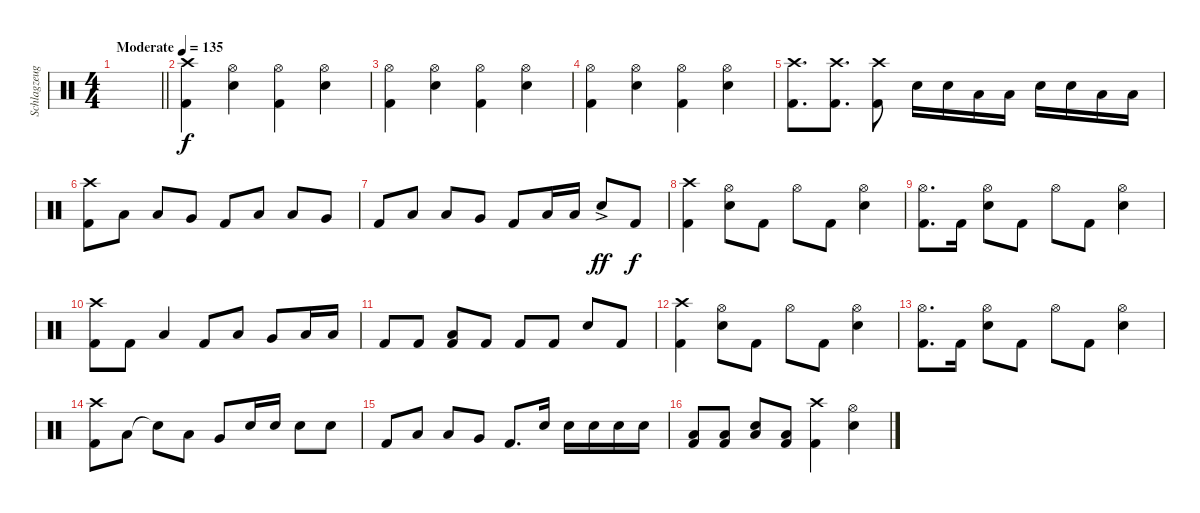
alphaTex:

\track ("Schlagzeug" "Schlagzeug") {instrument percussion}
\staff {score}
\articulation defaults
\ts (4 4)
\tempo (135 "Moderate")
\clef neutral
\barLineRight lightlight
\ks c
|
("Crash high (hit)" "Kick (hit) 2").4 ("Hi-Hat (open)" "Electric Snare (hit)").4 ("Hi-Hat (open)" "Kick (hit) 2").4 ("Hi-Hat (open)" "Electric Snare (hit)").4 |
("Hi-Hat (open)" "Kick (hit) 2").4 ("Hi-Hat (open)" "Electric Snare (hit)").4 ("Hi-Hat (open)" "Kick (hit) 2").4 ("Hi-Hat (open)" "Electric Snare (hit)").4 |
("Hi-Hat (open)" "Kick (hit) 2").4 ("Hi-Hat (open)" "Electric Snare (hit)").4 ("Hi-Hat (open)" "Kick (hit) 2").4 ("Hi-Hat (open)" "Electric Snare (hit)").4 |
("Crash high (hit)" "Kick (hit) 2").8{d} ("Crash high (hit)" "Kick (hit) 2").8{d} ("Crash high (hit)" "Kick (hit) 2").8 "Electric Snare (hit)".16 "Electric Snare (hit)".16 "Low Tom (hit)".16 "Low Tom (hit)".16 "Electric Snare (hit)".16 "Electric Snare (hit)".16 "Low Tom (hit)".16 "Low Tom (hit)".16 |
("Crash high (hit)" "Kick (hit) 2").8 "Low Floor Tom (hit)".8 "Low Tom (hit)".8 "Very Low Tom (hit)".8 "Kick (hit) 2".8 "Low Floor Tom (hit)".8 "Low Tom (hit)".8 "Very Low Tom (hit)".8 |
"Kick (hit) 2".8 "Low Floor Tom (hit)".8 "Low Tom (hit)".8 "Very Low Tom (hit)".8 "Kick (hit) 2".8 "Low Floor Tom (hit)".16 "Low Floor Tom (hit)".16 "Electric Snare (hit)"{ac}.8{dy ff} "Kick (hit) 2".8{dy f} |
("Crash high (hit)" "Kick (hit) 2").4 ("Hi-Hat (open)" "Electric Snare (hit)").8 "Kick (hit) 2".8 "Hi-Hat (open)".8 "Kick (hit) 2".8 ("Hi-Hat (open)" "Electric Snare (hit)").4 |
("Hi-Hat (open)" "Kick (hit) 2").8{d} "Kick (hit) 2".16 ("Hi-Hat (open)" "Electric Snare (hit)").8 "Kick (hit) 2".8 "Hi-Hat (open)".8 "Kick (hit) 2".8 ("Hi-Hat (open)" "Electric Snare (hit)").4 |
("Crash high (hit)" "Kick (hit) 2").8 "Kick (hit) 2".8 "Low Tom (hit)".4 "Kick (hit) 2".8 "Low Floor Tom (hit)".8 "Very Low Tom (hit)".8 "Low Floor Tom (hit)".16 "Low Floor Tom (hit)".16 |
"Kick (hit) 2".8 "Kick (hit) 2".8 ("Low Floor Tom (hit)" "Kick (hit) 2").8 "Kick (hit) 2".8 "Kick (hit) 2".8 "Kick (hit) 2".8 "Electric Snare (hit)".8 "Kick (hit) 2".8 |
("Crash high (hit)" "Kick (hit) 2").4 ("Hi-Hat (open)" "Electric Snare (hit)").8 "Kick (hit) 2".8 "Hi-Hat (open)".8 "Kick (hit) 2".8 ("Hi-Hat (open)" "Electric Snare (hit)").4 |
("Hi-Hat (open)" "Kick (hit) 2").8{d} "Kick (hit) 2".16 ("Hi-Hat (open)" "Electric Snare (hit)").8 "Kick (hit) 2".8 "Hi-Hat (open)".8 "Kick (hit) 2".8 ("Hi-Hat (open)" "Electric Snare (hit)").4 |
("Crash high (hit)" "Kick (hit) 2").8 "Low Floor Tom (hit)".8 "Snare (hit)"{t}.8 "Low Tom (hit)".8 "Very Low Tom (hit)".8 "Electric Snare (hit)".16 "Electric Snare (hit)".16 "Electric Snare (hit)".8 "Electric Snare (hit)".8 |
"Kick (hit) 2".8 "Low Floor Tom (hit)".8 "Low Tom (hit)".8 "Very Low Tom (hit)".8 "Kick (hit) 2".8{d} "Electric Snare (hit)".16 "Electric Snare (hit)".16 "Electric Snare (hit)".16 "Electric Snare (hit)".16 "Electric Snare (hit)".16 |
("Low Floor Tom (hit)" "Kick (hit) 2").8 ("Low Floor Tom (hit)" "Kick (hit) 2").8 ("Low Floor Tom (hit)" "Electric Snare (hit)").8 ("Low Floor Tom (hit)" "Kick (hit) 2").8 ("Crash high (hit)" "Kick (hit) 2").4 ("Hi-Hat (open)" "Electric Snare (hit)").4
